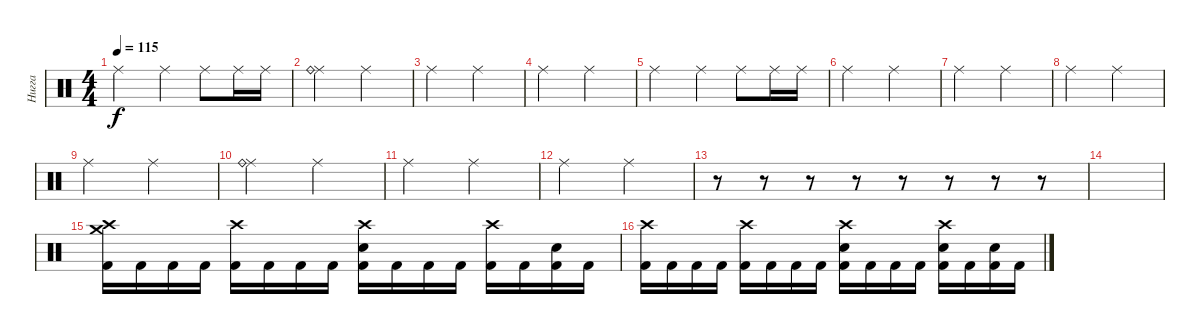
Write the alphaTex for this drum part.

\track ("Нигга" "Нигга") {instrument percussion}
\staff
\articulation defaults
\ts (4 4)
\tempo 115
\clef neutral
\ks c "Ride (middle)".2{dy f} "Ride (middle)".4 "Ride (middle)".8 "Ride (middle)".16 "Ride (middle)".16
|
("Ride (middle)" "Ride (bell)").2 "Ride (middle)".2 |
"Ride (middle)".2 "Ride (middle)".2 |
"Ride (middle)".2 "Ride (middle)".2 |
"Ride (middle)".2 "Ride (middle)".4 "Ride (middle)".8 "Ride (middle)".16 "Ride (middle)".16 |
"Ride (middle)".2 "Ride (middle)".2 |
"Ride (middle)".2 "Ride (middle)".2 |
"Ride (middle)".2 "Ride (middle)".2 |
"Ride (middle)".2 "Ride (middle)".2 |
("Ride (middle)" "Ride (bell)").2 "Ride (middle)".2 |
"Ride (middle)".2 "Ride (middle)".2 |
"Ride (middle)".2 "Ride (middle)".2 |
r.8 r.8 r.8 r.8 r.8 r.8 r.8 r.8 |
|
("Crash high (hit)" "Crash medium (hit)" "Kick (hit) 2").16 "Kick (hit) 2".16 "Kick (hit) 2".16 "Kick (hit) 2".16 ("Crash high (hit)" "Kick (hit) 2").16 "Kick (hit) 2".16 "Kick (hit) 2".16 "Kick (hit) 2".16 ("Crash high (hit)" "Electric Snare (hit)" "Kick (hit) 2").16 "Kick (hit) 2".16 "Kick (hit) 2".16 "Kick (hit) 2".16 ("Crash high (hit)" "Kick (hit) 2").16 "Kick (hit) 2".16 ("Electric Snare (hit)" "Kick (hit) 2").16 "Kick (hit) 2".16 |
("Crash high (hit)" "Kick (hit) 2").16 "Kick (hit) 2".16 "Kick (hit) 2".16 "Kick (hit) 2".16 ("Crash high (hit)" "Kick (hit) 2").16 "Kick (hit) 2".16 "Kick (hit) 2".16 "Kick (hit) 2".16 ("Crash high (hit)" "Electric Snare (hit)" "Kick (hit) 2").16 "Kick (hit) 2".16 "Kick (hit) 2".16 "Kick (hit) 2".16 ("Crash high (hit)" "Electric Snare (hit)" "Kick (hit) 2").16 "Kick (hit) 2".16 ("Electric Snare (hit)" "Kick (hit) 2").16 "Kick (hit) 2".16
